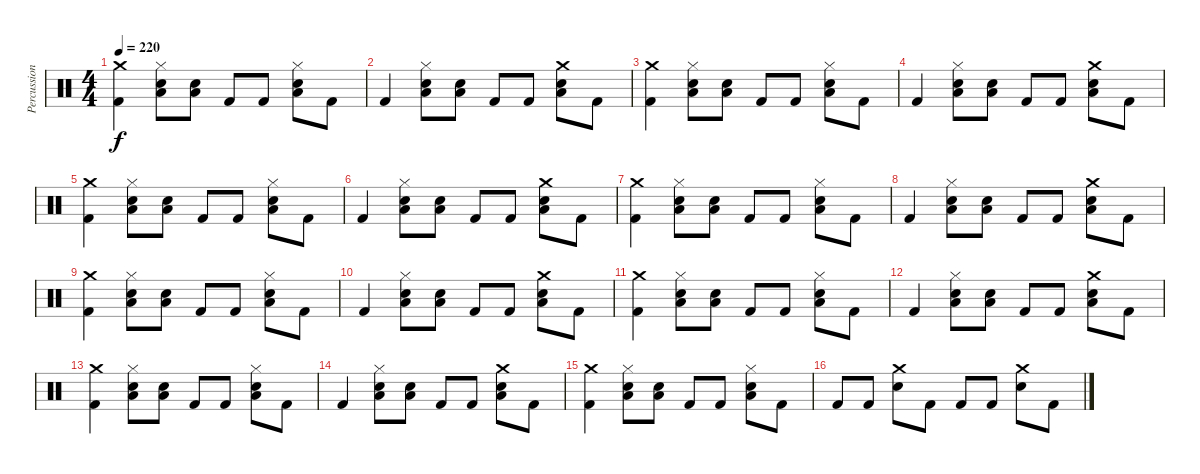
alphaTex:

\track ("Percussion" "Percussion") {instrument percussion}
\staff {score}
\articulation defaults
\ts (4 4)
\tempo 220
\clef neutral
\ks c
("Crash medium (hit)" "Kick (hit) 2").4{dy f} ("Hi-Hat (closed)" "Low Tom (hit)" "Snare (hit) 2").8 ("Low Tom (hit)" "Snare (hit) 2").8 "Kick (hit) 2".8 "Kick (hit) 2".8 ("Hi-Hat (closed)" "Low Tom (hit)" "Snare (hit) 2").8 "Kick (hit) 2".8 |
"Kick (hit) 2".4 ("Hi-Hat (closed)" "Low Tom (hit)" "Snare (hit) 2").8 ("Low Tom (hit)" "Snare (hit) 2").8 "Kick (hit) 2".8 "Kick (hit) 2".8 ("Crash medium (hit)" "Low Tom (hit)" "Snare (hit) 2").8 "Kick (hit) 2".8 |
("Crash medium (hit)" "Kick (hit) 2").4 ("Hi-Hat (closed)" "Low Tom (hit)" "Snare (hit) 2").8 ("Low Tom (hit)" "Snare (hit) 2").8 "Kick (hit) 2".8 "Kick (hit) 2".8 ("Hi-Hat (closed)" "Low Tom (hit)" "Snare (hit) 2").8 "Kick (hit) 2".8 |
"Kick (hit) 2".4 ("Hi-Hat (closed)" "Low Tom (hit)" "Snare (hit) 2").8 ("Low Tom (hit)" "Snare (hit) 2").8 "Kick (hit) 2".8 "Kick (hit) 2".8 ("Crash medium (hit)" "Low Tom (hit)" "Snare (hit) 2").8 "Kick (hit) 2".8 |
("Crash medium (hit)" "Kick (hit) 2").4 ("Hi-Hat (closed)" "Low Tom (hit)" "Snare (hit) 2").8 ("Low Tom (hit)" "Snare (hit) 2").8 "Kick (hit) 2".8 "Kick (hit) 2".8 ("Hi-Hat (closed)" "Low Tom (hit)" "Snare (hit) 2").8 "Kick (hit) 2".8 |
"Kick (hit) 2".4 ("Hi-Hat (closed)" "Low Tom (hit)" "Snare (hit) 2").8 ("Low Tom (hit)" "Snare (hit) 2").8 "Kick (hit) 2".8 "Kick (hit) 2".8 ("Crash medium (hit)" "Low Tom (hit)" "Snare (hit) 2").8 "Kick (hit) 2".8 |
("Crash medium (hit)" "Kick (hit) 2").4 ("Hi-Hat (closed)" "Low Tom (hit)" "Snare (hit) 2").8 ("Low Tom (hit)" "Snare (hit) 2").8 "Kick (hit) 2".8 "Kick (hit) 2".8 ("Hi-Hat (closed)" "Low Tom (hit)" "Snare (hit) 2").8 "Kick (hit) 2".8 |
"Kick (hit) 2".4 ("Hi-Hat (closed)" "Low Tom (hit)" "Snare (hit) 2").8 ("Low Tom (hit)" "Snare (hit) 2").8 "Kick (hit) 2".8 "Kick (hit) 2".8 ("Crash medium (hit)" "Low Tom (hit)" "Snare (hit) 2").8 "Kick (hit) 2".8 |
("Crash medium (hit)" "Kick (hit) 2").4 ("Hi-Hat (closed)" "Low Tom (hit)" "Snare (hit) 2").8 ("Low Tom (hit)" "Snare (hit) 2").8 "Kick (hit) 2".8 "Kick (hit) 2".8 ("Hi-Hat (closed)" "Low Tom (hit)" "Snare (hit) 2").8 "Kick (hit) 2".8 |
"Kick (hit) 2".4 ("Hi-Hat (closed)" "Low Tom (hit)" "Snare (hit) 2").8 ("Low Tom (hit)" "Snare (hit) 2").8 "Kick (hit) 2".8 "Kick (hit) 2".8 ("Crash medium (hit)" "Low Tom (hit)" "Snare (hit) 2").8 "Kick (hit) 2".8 |
("Crash medium (hit)" "Kick (hit) 2").4 ("Hi-Hat (closed)" "Low Tom (hit)" "Snare (hit) 2").8 ("Low Tom (hit)" "Snare (hit) 2").8 "Kick (hit) 2".8 "Kick (hit) 2".8 ("Hi-Hat (closed)" "Low Tom (hit)" "Snare (hit) 2").8 "Kick (hit) 2".8 |
"Kick (hit) 2".4 ("Hi-Hat (closed)" "Low Tom (hit)" "Snare (hit) 2").8 ("Low Tom (hit)" "Snare (hit) 2").8 "Kick (hit) 2".8 "Kick (hit) 2".8 ("Crash medium (hit)" "Low Tom (hit)" "Snare (hit) 2").8 "Kick (hit) 2".8 |
("Crash medium (hit)" "Kick (hit) 2").4 ("Hi-Hat (closed)" "Low Tom (hit)" "Snare (hit) 2").8 ("Low Tom (hit)" "Snare (hit) 2").8 "Kick (hit) 2".8 "Kick (hit) 2".8 ("Hi-Hat (closed)" "Low Tom (hit)" "Snare (hit) 2").8 "Kick (hit) 2".8 |
"Kick (hit) 2".4 ("Hi-Hat (closed)" "Low Tom (hit)" "Snare (hit) 2").8 ("Low Tom (hit)" "Snare (hit) 2").8 "Kick (hit) 2".8 "Kick (hit) 2".8 ("Crash medium (hit)" "Low Tom (hit)" "Snare (hit) 2").8 "Kick (hit) 2".8 |
("Crash medium (hit)" "Kick (hit) 2").4 ("Hi-Hat (closed)" "Low Tom (hit)" "Snare (hit) 2").8 ("Low Tom (hit)" "Snare (hit) 2").8 "Kick (hit) 2".8 "Kick (hit) 2".8 ("Hi-Hat (closed)" "Low Tom (hit)" "Snare (hit) 2").8 "Kick (hit) 2".8 |
"Kick (hit) 2".8 "Kick (hit) 2".8 ("Crash medium (hit)" "Snare (hit) 2").8 "Kick (hit) 2".8 "Kick (hit) 2".8 "Kick (hit) 2".8 ("Crash medium (hit)" "Snare (hit) 2").8 "Kick (hit) 2".8
